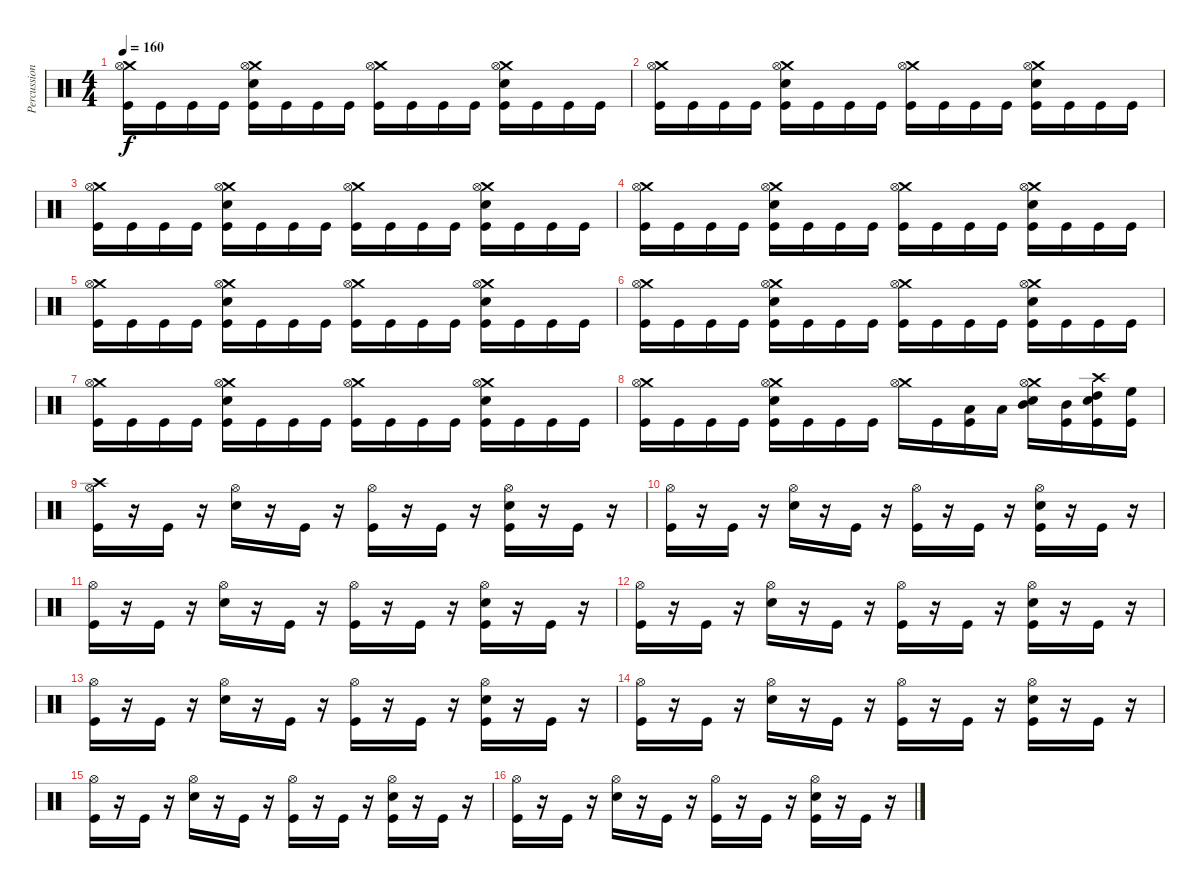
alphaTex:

\track ("Percussion" "Percussion") {instrument percussion}
\staff {score}
\articulation defaults
\ts (4 4)
\tempo 160
\clef neutral
\ks c
("Crash medium (hit)" "Hi-Hat (open)" "Kick (hit)").16{dy f} "Kick (hit)".16 "Kick (hit)".16 "Kick (hit)".16 ("Crash medium (hit)" "Snare (hit) 2" "Hi-Hat (open)" "Kick (hit)").16 "Kick (hit)".16 "Kick (hit)".16 "Kick (hit)".16 ("Crash medium (hit)" "Hi-Hat (open)" "Kick (hit)").16 "Kick (hit)".16 "Kick (hit)".16 "Kick (hit)".16 ("Crash medium (hit)" "Snare (hit) 2" "Hi-Hat (open)" "Kick (hit)").16 "Kick (hit)".16 "Kick (hit)".16 "Kick (hit)".16 |
("Crash medium (hit)" "Hi-Hat (open)" "Kick (hit)").16 "Kick (hit)".16 "Kick (hit)".16 "Kick (hit)".16 ("Crash medium (hit)" "Snare (hit) 2" "Hi-Hat (open)" "Kick (hit)").16 "Kick (hit)".16 "Kick (hit)".16 "Kick (hit)".16 ("Crash medium (hit)" "Hi-Hat (open)" "Kick (hit)").16 "Kick (hit)".16 "Kick (hit)".16 "Kick (hit)".16 ("Crash medium (hit)" "Snare (hit) 2" "Hi-Hat (open)" "Kick (hit)").16 "Kick (hit)".16 "Kick (hit)".16 "Kick (hit)".16 |
("Crash medium (hit)" "Hi-Hat (open)" "Kick (hit)").16 "Kick (hit)".16 "Kick (hit)".16 "Kick (hit)".16 ("Crash medium (hit)" "Snare (hit) 2" "Hi-Hat (open)" "Kick (hit)").16 "Kick (hit)".16 "Kick (hit)".16 "Kick (hit)".16 ("Crash medium (hit)" "Hi-Hat (open)" "Kick (hit)").16 "Kick (hit)".16 "Kick (hit)".16 "Kick (hit)".16 ("Crash medium (hit)" "Snare (hit) 2" "Hi-Hat (open)" "Kick (hit)").16 "Kick (hit)".16 "Kick (hit)".16 "Kick (hit)".16 |
("Crash medium (hit)" "Hi-Hat (open)" "Kick (hit)").16 "Kick (hit)".16 "Kick (hit)".16 "Kick (hit)".16 ("Crash medium (hit)" "Snare (hit) 2" "Hi-Hat (open)" "Kick (hit)").16 "Kick (hit)".16 "Kick (hit)".16 "Kick (hit)".16 ("Crash medium (hit)" "Hi-Hat (open)" "Kick (hit)").16 "Kick (hit)".16 "Kick (hit)".16 "Kick (hit)".16 ("Crash medium (hit)" "Snare (hit) 2" "Hi-Hat (open)" "Kick (hit)").16 "Kick (hit)".16 "Kick (hit)".16 "Kick (hit)".16 |
("Crash medium (hit)" "Hi-Hat (open)" "Kick (hit)").16 "Kick (hit)".16 "Kick (hit)".16 "Kick (hit)".16 ("Crash medium (hit)" "Snare (hit) 2" "Hi-Hat (open)" "Kick (hit)").16 "Kick (hit)".16 "Kick (hit)".16 "Kick (hit)".16 ("Crash medium (hit)" "Hi-Hat (open)" "Kick (hit)").16 "Kick (hit)".16 "Kick (hit)".16 "Kick (hit)".16 ("Crash medium (hit)" "Snare (hit) 2" "Hi-Hat (open)" "Kick (hit)").16 "Kick (hit)".16 "Kick (hit)".16 "Kick (hit)".16 |
("Crash medium (hit)" "Hi-Hat (open)" "Kick (hit)").16 "Kick (hit)".16 "Kick (hit)".16 "Kick (hit)".16 ("Crash medium (hit)" "Snare (hit) 2" "Hi-Hat (open)" "Kick (hit)").16 "Kick (hit)".16 "Kick (hit)".16 "Kick (hit)".16 ("Crash medium (hit)" "Hi-Hat (open)" "Kick (hit)").16 "Kick (hit)".16 "Kick (hit)".16 "Kick (hit)".16 ("Crash medium (hit)" "Snare (hit) 2" "Hi-Hat (open)" "Kick (hit)").16 "Kick (hit)".16 "Kick (hit)".16 "Kick (hit)".16 |
("Crash medium (hit)" "Hi-Hat (open)" "Kick (hit)").16 "Kick (hit)".16 "Kick (hit)".16 "Kick (hit)".16 ("Crash medium (hit)" "Snare (hit) 2" "Hi-Hat (open)" "Kick (hit)").16 "Kick (hit)".16 "Kick (hit)".16 "Kick (hit)".16 ("Crash medium (hit)" "Hi-Hat (open)" "Kick (hit)").16 "Kick (hit)".16 "Kick (hit)".16 "Kick (hit)".16 ("Crash medium (hit)" "Snare (hit) 2" "Hi-Hat (open)" "Kick (hit)").16 "Kick (hit)".16 "Kick (hit)".16 "Kick (hit)".16 |
("Crash medium (hit)" "Hi-Hat (open)" "Kick (hit)").16 "Kick (hit)".16 "Kick (hit)".16 "Kick (hit)".16 ("Crash medium (hit)" "Snare (hit) 2" "Hi-Hat (open)" "Kick (hit)").16 "Kick (hit)".16 "Kick (hit)".16 "Kick (hit)".16 ("Crash medium (hit)" "Hi-Hat (open)").16 "Kick (hit)".16 ("Low Tom (hit)" "Kick (hit)").16 "Low Tom (hit)".16 ("Crash medium (hit)" "Snare (hit) 2" "Mid Tom (hit)" "Hi-Hat (open)").16 ("Mid Tom (hit)" "Kick (hit)").16 ("Crash high (hit)" "Snare (hit) 2" "High Tom (hit)" "Kick (hit)").16 ("High Floor Tom (hit)" "Kick (hit)").16 |
("Crash high (hit)" "Hi-Hat (open)" "Kick (hit)").16 r.16 "Kick (hit)".16 r.16 ("Snare (hit) 2" "Hi-Hat (open)").16 r.16 "Kick (hit)".16 r.16 ("Hi-Hat (open)" "Kick (hit)").16 r.16 "Kick (hit)".16 r.16 ("Snare (hit) 2" "Hi-Hat (open)" "Kick (hit)").16 r.16 "Kick (hit)".16 r.16 |
("Hi-Hat (open)" "Kick (hit)").16 r.16 "Kick (hit)".16 r.16 ("Snare (hit) 2" "Hi-Hat (open)").16 r.16 "Kick (hit)".16 r.16 ("Hi-Hat (open)" "Kick (hit)").16 r.16 "Kick (hit)".16 r.16 ("Snare (hit) 2" "Hi-Hat (open)" "Kick (hit)").16 r.16 "Kick (hit)".16 r.16 |
("Hi-Hat (open)" "Kick (hit)").16 r.16 "Kick (hit)".16 r.16 ("Snare (hit) 2" "Hi-Hat (open)").16 r.16 "Kick (hit)".16 r.16 ("Hi-Hat (open)" "Kick (hit)").16 r.16 "Kick (hit)".16 r.16 ("Snare (hit) 2" "Hi-Hat (open)" "Kick (hit)").16 r.16 "Kick (hit)".16 r.16 |
("Hi-Hat (open)" "Kick (hit)").16 r.16 "Kick (hit)".16 r.16 ("Snare (hit) 2" "Hi-Hat (open)").16 r.16 "Kick (hit)".16 r.16 ("Hi-Hat (open)" "Kick (hit)").16 r.16 "Kick (hit)".16 r.16 ("Snare (hit) 2" "Hi-Hat (open)" "Kick (hit)").16 r.16 "Kick (hit)".16 r.16 |
("Hi-Hat (open)" "Kick (hit)").16 r.16 "Kick (hit)".16 r.16 ("Snare (hit) 2" "Hi-Hat (open)").16 r.16 "Kick (hit)".16 r.16 ("Hi-Hat (open)" "Kick (hit)").16 r.16 "Kick (hit)".16 r.16 ("Snare (hit) 2" "Hi-Hat (open)" "Kick (hit)").16 r.16 "Kick (hit)".16 r.16 |
("Hi-Hat (open)" "Kick (hit)").16 r.16 "Kick (hit)".16 r.16 ("Snare (hit) 2" "Hi-Hat (open)").16 r.16 "Kick (hit)".16 r.16 ("Hi-Hat (open)" "Kick (hit)").16 r.16 "Kick (hit)".16 r.16 ("Snare (hit) 2" "Hi-Hat (open)" "Kick (hit)").16 r.16 "Kick (hit)".16 r.16 |
("Hi-Hat (open)" "Kick (hit)").16 r.16 "Kick (hit)".16 r.16 ("Snare (hit) 2" "Hi-Hat (open)").16 r.16 "Kick (hit)".16 r.16 ("Hi-Hat (open)" "Kick (hit)").16 r.16 "Kick (hit)".16 r.16 ("Snare (hit) 2" "Hi-Hat (open)" "Kick (hit)").16 r.16 "Kick (hit)".16 r.16 |
("Hi-Hat (open)" "Kick (hit)").16 r.16 "Kick (hit)".16 r.16 ("Snare (hit) 2" "Hi-Hat (open)").16 r.16 "Kick (hit)".16 r.16 ("Hi-Hat (open)" "Kick (hit)").16 r.16 "Kick (hit)".16 r.16 ("Snare (hit) 2" "Hi-Hat (open)" "Kick (hit)").16 r.16 "Kick (hit)".16 r.16
